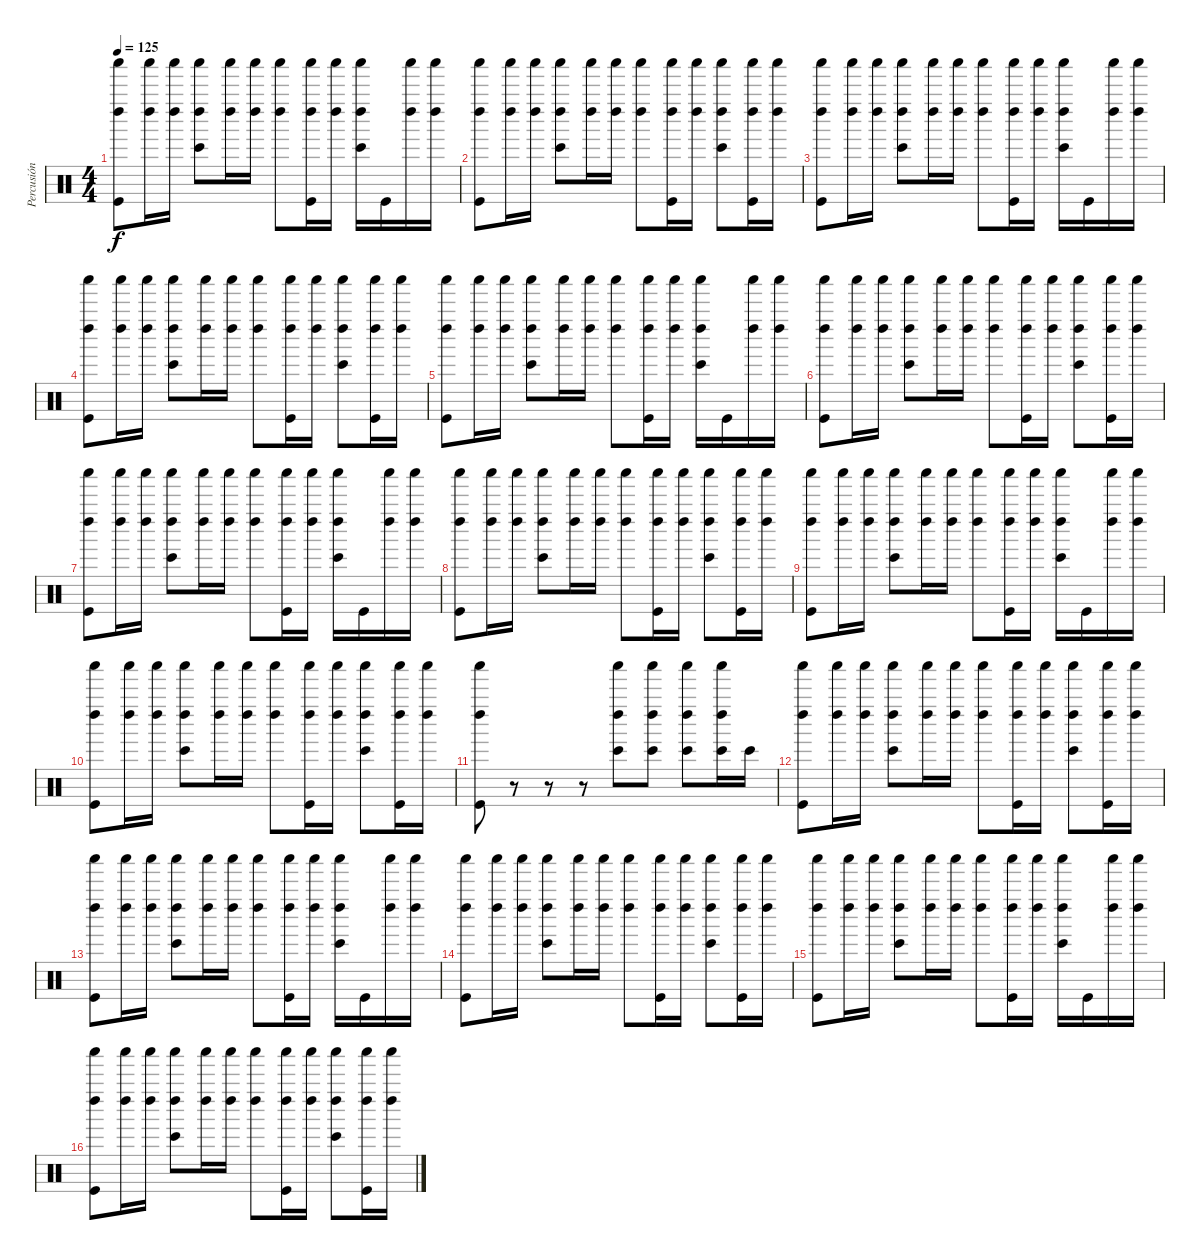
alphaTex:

\track ("Percusión" "Percusión") {instrument percussion}
\staff {score}
\articulation defaults
\ts (4 4)
\tempo 125
\clef neutral
\ks c
("Shaker (hit)" "Left Maraca (hit)" "Kick (hit)").8{dy f} ("Shaker (hit)" "Left Maraca (hit)").16 ("Shaker (hit)" "Left Maraca (hit)").16 ("Shaker (hit)" "Left Maraca (hit)" "Bongo High (hit)").8 ("Shaker (hit)" "Left Maraca (hit)").16 ("Shaker (hit)" "Left Maraca (hit)").16 ("Shaker (hit)" "Left Maraca (hit)").8 ("Shaker (hit)" "Left Maraca (hit)" "Kick (hit)").16 ("Shaker (hit)" "Left Maraca (hit)").16 ("Shaker (hit)" "Left Maraca (hit)" "Bongo High (hit)").16 "Kick (hit)".16 ("Shaker (hit)" "Left Maraca (hit)").16 ("Shaker (hit)" "Left Maraca (hit)").16 |
("Shaker (hit)" "Left Maraca (hit)" "Kick (hit)").8 ("Shaker (hit)" "Left Maraca (hit)").16 ("Shaker (hit)" "Left Maraca (hit)").16 ("Shaker (hit)" "Left Maraca (hit)" "Bongo High (hit)").8 ("Shaker (hit)" "Left Maraca (hit)").16 ("Shaker (hit)" "Left Maraca (hit)").16 ("Shaker (hit)" "Left Maraca (hit)").8 ("Shaker (hit)" "Left Maraca (hit)" "Kick (hit)").16 ("Shaker (hit)" "Left Maraca (hit)").16 ("Shaker (hit)" "Left Maraca (hit)" "Bongo High (hit)").8 ("Shaker (hit)" "Left Maraca (hit)" "Kick (hit)").16 ("Shaker (hit)" "Left Maraca (hit)").16 |
("Shaker (hit)" "Left Maraca (hit)" "Kick (hit)").8 ("Shaker (hit)" "Left Maraca (hit)").16 ("Shaker (hit)" "Left Maraca (hit)").16 ("Shaker (hit)" "Left Maraca (hit)" "Bongo High (hit)").8 ("Shaker (hit)" "Left Maraca (hit)").16 ("Shaker (hit)" "Left Maraca (hit)").16 ("Shaker (hit)" "Left Maraca (hit)").8 ("Shaker (hit)" "Left Maraca (hit)" "Kick (hit)").16 ("Shaker (hit)" "Left Maraca (hit)").16 ("Shaker (hit)" "Left Maraca (hit)" "Bongo High (hit)").16 "Kick (hit)".16 ("Shaker (hit)" "Left Maraca (hit)").16 ("Shaker (hit)" "Left Maraca (hit)").16 |
("Shaker (hit)" "Left Maraca (hit)" "Kick (hit)").8 ("Shaker (hit)" "Left Maraca (hit)").16 ("Shaker (hit)" "Left Maraca (hit)").16 ("Shaker (hit)" "Left Maraca (hit)" "Bongo High (hit)").8 ("Shaker (hit)" "Left Maraca (hit)").16 ("Shaker (hit)" "Left Maraca (hit)").16 ("Shaker (hit)" "Left Maraca (hit)").8 ("Shaker (hit)" "Left Maraca (hit)" "Kick (hit)").16 ("Shaker (hit)" "Left Maraca (hit)").16 ("Shaker (hit)" "Left Maraca (hit)" "Bongo High (hit)").8 ("Shaker (hit)" "Left Maraca (hit)" "Kick (hit)").16 ("Shaker (hit)" "Left Maraca (hit)").16 |
("Shaker (hit)" "Left Maraca (hit)" "Kick (hit)").8 ("Shaker (hit)" "Left Maraca (hit)").16 ("Shaker (hit)" "Left Maraca (hit)").16 ("Shaker (hit)" "Left Maraca (hit)" "Bongo High (hit)").8 ("Shaker (hit)" "Left Maraca (hit)").16 ("Shaker (hit)" "Left Maraca (hit)").16 ("Shaker (hit)" "Left Maraca (hit)").8 ("Shaker (hit)" "Left Maraca (hit)" "Kick (hit)").16 ("Shaker (hit)" "Left Maraca (hit)").16 ("Shaker (hit)" "Left Maraca (hit)" "Bongo High (hit)").16 "Kick (hit)".16 ("Shaker (hit)" "Left Maraca (hit)").16 ("Shaker (hit)" "Left Maraca (hit)").16 |
("Shaker (hit)" "Left Maraca (hit)" "Kick (hit)").8 ("Shaker (hit)" "Left Maraca (hit)").16 ("Shaker (hit)" "Left Maraca (hit)").16 ("Shaker (hit)" "Left Maraca (hit)" "Bongo High (hit)").8 ("Shaker (hit)" "Left Maraca (hit)").16 ("Shaker (hit)" "Left Maraca (hit)").16 ("Shaker (hit)" "Left Maraca (hit)").8 ("Shaker (hit)" "Left Maraca (hit)" "Kick (hit)").16 ("Shaker (hit)" "Left Maraca (hit)").16 ("Shaker (hit)" "Left Maraca (hit)" "Bongo High (hit)").8 ("Shaker (hit)" "Left Maraca (hit)" "Kick (hit)").16 ("Shaker (hit)" "Left Maraca (hit)").16 |
("Shaker (hit)" "Left Maraca (hit)" "Kick (hit)").8 ("Shaker (hit)" "Left Maraca (hit)").16 ("Shaker (hit)" "Left Maraca (hit)").16 ("Shaker (hit)" "Left Maraca (hit)" "Bongo High (hit)").8 ("Shaker (hit)" "Left Maraca (hit)").16 ("Shaker (hit)" "Left Maraca (hit)").16 ("Shaker (hit)" "Left Maraca (hit)").8 ("Shaker (hit)" "Left Maraca (hit)" "Kick (hit)").16 ("Shaker (hit)" "Left Maraca (hit)").16 ("Shaker (hit)" "Left Maraca (hit)" "Bongo High (hit)").16 "Kick (hit)".16 ("Shaker (hit)" "Left Maraca (hit)").16 ("Shaker (hit)" "Left Maraca (hit)").16 |
("Shaker (hit)" "Left Maraca (hit)" "Kick (hit)").8 ("Shaker (hit)" "Left Maraca (hit)").16 ("Shaker (hit)" "Left Maraca (hit)").16 ("Shaker (hit)" "Left Maraca (hit)" "Bongo High (hit)").8 ("Shaker (hit)" "Left Maraca (hit)").16 ("Shaker (hit)" "Left Maraca (hit)").16 ("Shaker (hit)" "Left Maraca (hit)").8 ("Shaker (hit)" "Left Maraca (hit)" "Kick (hit)").16 ("Shaker (hit)" "Left Maraca (hit)").16 ("Shaker (hit)" "Left Maraca (hit)" "Bongo High (hit)").8 ("Shaker (hit)" "Left Maraca (hit)" "Kick (hit)").16 ("Shaker (hit)" "Left Maraca (hit)").16 |
("Shaker (hit)" "Left Maraca (hit)" "Kick (hit)").8 ("Shaker (hit)" "Left Maraca (hit)").16 ("Shaker (hit)" "Left Maraca (hit)").16 ("Shaker (hit)" "Left Maraca (hit)" "Bongo High (hit)").8 ("Shaker (hit)" "Left Maraca (hit)").16 ("Shaker (hit)" "Left Maraca (hit)").16 ("Shaker (hit)" "Left Maraca (hit)").8 ("Shaker (hit)" "Left Maraca (hit)" "Kick (hit)").16 ("Shaker (hit)" "Left Maraca (hit)").16 ("Shaker (hit)" "Left Maraca (hit)" "Bongo High (hit)").16 "Kick (hit)".16 ("Shaker (hit)" "Left Maraca (hit)").16 ("Shaker (hit)" "Left Maraca (hit)").16 |
("Shaker (hit)" "Left Maraca (hit)" "Kick (hit)").8 ("Shaker (hit)" "Left Maraca (hit)").16 ("Shaker (hit)" "Left Maraca (hit)").16 ("Shaker (hit)" "Left Maraca (hit)" "Bongo High (hit)").8 ("Shaker (hit)" "Left Maraca (hit)").16 ("Shaker (hit)" "Left Maraca (hit)").16 ("Shaker (hit)" "Left Maraca (hit)").8 ("Shaker (hit)" "Left Maraca (hit)" "Kick (hit)").16 ("Shaker (hit)" "Left Maraca (hit)").16 ("Shaker (hit)" "Left Maraca (hit)" "Bongo High (hit)").8 ("Shaker (hit)" "Left Maraca (hit)" "Kick (hit)").16 ("Shaker (hit)" "Left Maraca (hit)").16 |
("Shaker (hit)" "Left Maraca (hit)" "Kick (hit)").8 r.8 r.8 r.8 ("Shaker (hit)" "Left Maraca (hit)" "Bongo High (hit)").8 ("Shaker (hit)" "Left Maraca (hit)" "Bongo High (hit)").8 ("Shaker (hit)" "Left Maraca (hit)" "Bongo High (hit)").8 ("Shaker (hit)" "Left Maraca (hit)" "Bongo High (hit)").16 "Bongo High (hit)".16 |
("Shaker (hit)" "Left Maraca (hit)" "Kick (hit)").8 ("Shaker (hit)" "Left Maraca (hit)").16 ("Shaker (hit)" "Left Maraca (hit)").16 ("Shaker (hit)" "Left Maraca (hit)" "Bongo High (hit)").8 ("Shaker (hit)" "Left Maraca (hit)").16 ("Shaker (hit)" "Left Maraca (hit)").16 ("Shaker (hit)" "Left Maraca (hit)").8 ("Shaker (hit)" "Left Maraca (hit)" "Kick (hit)").16 ("Shaker (hit)" "Left Maraca (hit)").16 ("Shaker (hit)" "Left Maraca (hit)" "Bongo High (hit)").8 ("Shaker (hit)" "Left Maraca (hit)" "Kick (hit)").16 ("Shaker (hit)" "Left Maraca (hit)").16 |
("Shaker (hit)" "Left Maraca (hit)" "Kick (hit)").8 ("Shaker (hit)" "Left Maraca (hit)").16 ("Shaker (hit)" "Left Maraca (hit)").16 ("Shaker (hit)" "Left Maraca (hit)" "Bongo High (hit)").8 ("Shaker (hit)" "Left Maraca (hit)").16 ("Shaker (hit)" "Left Maraca (hit)").16 ("Shaker (hit)" "Left Maraca (hit)").8 ("Shaker (hit)" "Left Maraca (hit)" "Kick (hit)").16 ("Shaker (hit)" "Left Maraca (hit)").16 ("Shaker (hit)" "Left Maraca (hit)" "Bongo High (hit)").16 "Kick (hit)".16 ("Shaker (hit)" "Left Maraca (hit)").16 ("Shaker (hit)" "Left Maraca (hit)").16 |
("Shaker (hit)" "Left Maraca (hit)" "Kick (hit)").8 ("Shaker (hit)" "Left Maraca (hit)").16 ("Shaker (hit)" "Left Maraca (hit)").16 ("Shaker (hit)" "Left Maraca (hit)" "Bongo High (hit)").8 ("Shaker (hit)" "Left Maraca (hit)").16 ("Shaker (hit)" "Left Maraca (hit)").16 ("Shaker (hit)" "Left Maraca (hit)").8 ("Shaker (hit)" "Left Maraca (hit)" "Kick (hit)").16 ("Shaker (hit)" "Left Maraca (hit)").16 ("Shaker (hit)" "Left Maraca (hit)" "Bongo High (hit)").8 ("Shaker (hit)" "Left Maraca (hit)" "Kick (hit)").16 ("Shaker (hit)" "Left Maraca (hit)").16 |
("Shaker (hit)" "Left Maraca (hit)" "Kick (hit)").8 ("Shaker (hit)" "Left Maraca (hit)").16 ("Shaker (hit)" "Left Maraca (hit)").16 ("Shaker (hit)" "Left Maraca (hit)" "Bongo High (hit)").8 ("Shaker (hit)" "Left Maraca (hit)").16 ("Shaker (hit)" "Left Maraca (hit)").16 ("Shaker (hit)" "Left Maraca (hit)").8 ("Shaker (hit)" "Left Maraca (hit)" "Kick (hit)").16 ("Shaker (hit)" "Left Maraca (hit)").16 ("Shaker (hit)" "Left Maraca (hit)" "Bongo High (hit)").16 "Kick (hit)".16 ("Shaker (hit)" "Left Maraca (hit)").16 ("Shaker (hit)" "Left Maraca (hit)").16 |
("Shaker (hit)" "Left Maraca (hit)" "Kick (hit)").8 ("Shaker (hit)" "Left Maraca (hit)").16 ("Shaker (hit)" "Left Maraca (hit)").16 ("Shaker (hit)" "Left Maraca (hit)" "Bongo High (hit)").8 ("Shaker (hit)" "Left Maraca (hit)").16 ("Shaker (hit)" "Left Maraca (hit)").16 ("Shaker (hit)" "Left Maraca (hit)").8 ("Shaker (hit)" "Left Maraca (hit)" "Kick (hit)").16 ("Shaker (hit)" "Left Maraca (hit)").16 ("Shaker (hit)" "Left Maraca (hit)" "Bongo High (hit)").8 ("Shaker (hit)" "Left Maraca (hit)" "Kick (hit)").16 ("Shaker (hit)" "Left Maraca (hit)").16
